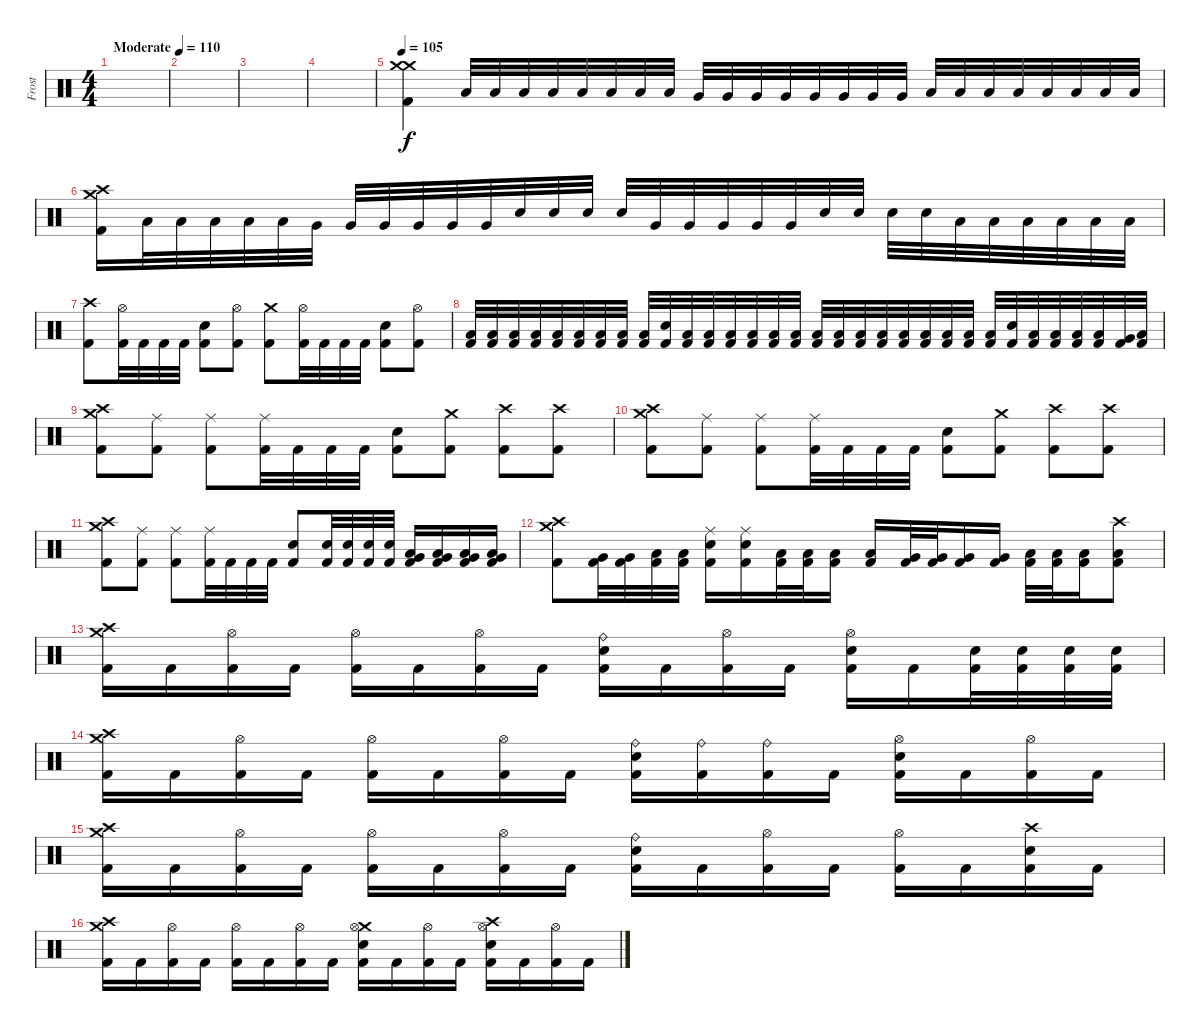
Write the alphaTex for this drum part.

\track ("Frost" "Frost") {instrument percussion}
\staff {score}
\articulation defaults
\ts (4 4)
\tempo (110 "Moderate")
\clef neutral
\ks c
|
|
|
|
\tempo 105
("Crash medium (hit)" "Crash medium (hit)" "Kick (hit) 2").4 "Low Tom (hit)".32 "Low Tom (hit)".32 "Low Tom (hit)".32 "Low Tom (hit)".32 "Low Tom (hit)".32 "Low Tom (hit)".32 "Low Tom (hit)".32 "Low Tom (hit)".32 "Very Low Tom (hit)".32 "Very Low Tom (hit)".32 "Very Low Tom (hit)".32 "Very Low Tom (hit)".32 "Very Low Tom (hit)".32 "Very Low Tom (hit)".32 "Very Low Tom (hit)".32 "Very Low Tom (hit)".32 "Low Floor Tom (hit)".32 "Low Floor Tom (hit)".32 "Low Floor Tom (hit)".32 "Low Floor Tom (hit)".32 "Low Floor Tom (hit)".32 "Low Floor Tom (hit)".32 "Low Floor Tom (hit)".32 "Low Floor Tom (hit)".32 |
("Crash high (hit)" "Crash medium (hit)" "Kick (hit) 2").16 "Low Tom (hit)".32 "Low Tom (hit)".32 "Low Tom (hit)".32 "Low Tom (hit)".32 "Low Tom (hit)".32 "Very Low Tom (hit)".32 "Very Low Tom (hit)".32 "Very Low Tom (hit)".32 "Very Low Tom (hit)".32 "Very Low Tom (hit)".32 "Very Low Tom (hit)".32 "Snare (hit) 2".32 "Snare (hit) 2".32 "Snare (hit) 2".32 "Snare (hit) 2".32 "Very Low Tom (hit)".32 "Very Low Tom (hit)".32 "Very Low Tom (hit)".32 "Very Low Tom (hit)".32 "Very Low Tom (hit)".32 "Snare (hit) 2".32 "Snare (hit) 2".32 "Snare (hit) 2".32 "Snare (hit) 2".32 "Low Floor Tom (hit)".32 "Low Floor Tom (hit)".32 "Low Floor Tom (hit)".32 "Low Floor Tom (hit)".32 "Low Floor Tom (hit)".32 "Low Floor Tom (hit)".32 |
("Crash high (hit)" "Kick (hit) 2").8 ("Hi-Hat (open)" "Kick (hit) 2").32 "Kick (hit) 2".32 "Kick (hit) 2".32 "Kick (hit) 2".32 ("Snare (hit) 2" "Kick (hit) 2").8 ("Hi-Hat (open)" "Kick (hit) 2").8 ("Crash medium (hit)" "Kick (hit) 2").8 ("Hi-Hat (open)" "Kick (hit) 2").32 "Kick (hit) 2".32 "Kick (hit) 2".32 "Kick (hit) 2".32 ("Snare (hit) 2" "Kick (hit) 2").8 ("Hi-Hat (open)" "Kick (hit) 2").8 |
("Low Tom (hit)" "Kick (hit) 2").32 ("Low Floor Tom (hit)" "Kick (hit) 2").32 ("Low Tom (hit)" "Kick (hit) 2").32 ("Low Floor Tom (hit)" "Kick (hit) 2").32 ("Low Tom (hit)" "Kick (hit) 2").32 ("Low Floor Tom (hit)" "Kick (hit) 2").32 ("Low Tom (hit)" "Kick (hit) 2").32 ("Low Floor Tom (hit)" "Kick (hit) 2").32 ("Low Tom (hit)" "Kick (hit) 2").32 ("Snare (hit) 2" "Kick (hit) 2").32 ("Low Tom (hit)" "Kick (hit) 2").32 ("Low Floor Tom (hit)" "Kick (hit) 2").32 ("Low Tom (hit)" "Kick (hit) 2").32 ("Low Floor Tom (hit)" "Kick (hit) 2").32 ("Low Tom (hit)" "Kick (hit) 2").32 ("Low Floor Tom (hit)" "Kick (hit) 2").32 ("Low Tom (hit)" "Kick (hit) 2").32 ("Low Floor Tom (hit)" "Kick (hit) 2").32 ("Low Tom (hit)" "Kick (hit) 2").32 ("Low Tom (hit)" "Kick (hit) 2").32 ("Low Floor Tom (hit)" "Kick (hit) 2").32 ("Low Tom (hit)" "Kick (hit) 2").32 ("Low Floor Tom (hit)" "Kick (hit) 2").32 ("Low Tom (hit)" "Kick (hit) 2").32 ("Low Floor Tom (hit)" "Kick (hit) 2").32 ("Snare (hit) 2" "Kick (hit) 2").32 ("Low Floor Tom (hit)" "Kick (hit) 2").32 ("Low Tom (hit)" "Kick (hit) 2").32 ("Low Floor Tom (hit)" "Kick (hit) 2").32 ("Low Tom (hit)" "Kick (hit) 2").32 ("Very Low Tom (hit)" "Kick (hit) 2").32 ("Low Tom (hit)" "Kick (hit) 2").32 |
("Crash high (hit)" "Crash medium (hit)" "Kick (hit) 2").8 ("Ride (middle)" "Kick (hit) 2").8 ("Ride (middle)" "Kick (hit) 2").8 ("Ride (middle)" "Kick (hit) 2").32 "Kick (hit) 2".32 "Kick (hit) 2".32 "Kick (hit) 2".32 ("Snare (hit) 2" "Kick (hit) 2").8 ("Crash medium (hit)" "Kick (hit) 2").8 ("Crash high (hit)" "Kick (hit) 2").8 ("Crash high (hit)" "Kick (hit) 2").8 |
("Crash high (hit)" "Crash medium (hit)" "Kick (hit) 2").8 ("Ride (middle)" "Kick (hit) 2").8 ("Ride (middle)" "Kick (hit) 2").8 ("Ride (middle)" "Kick (hit) 2").32 "Kick (hit) 2".32 "Kick (hit) 2".32 "Kick (hit) 2".32 ("Snare (hit) 2" "Kick (hit) 2").8 ("Crash medium (hit)" "Kick (hit) 2").8 ("Crash high (hit)" "Kick (hit) 2").8 ("Crash high (hit)" "Kick (hit) 2").8 |
("Crash high (hit)" "Crash medium (hit)" "Kick (hit) 2").8 ("Ride (middle)" "Kick (hit) 2").8 ("Ride (middle)" "Kick (hit) 2").8 ("Ride (middle)" "Kick (hit) 2").32 "Kick (hit) 2".32 "Kick (hit) 2".32 "Kick (hit) 2".32 ("Snare (hit) 2" "Kick (hit) 2").8 ("Snare (hit) 2" "Kick (hit) 2").32 ("Snare (hit) 2" "Kick (hit) 2").32 ("Snare (hit) 2" "Kick (hit) 2").32 ("Snare (hit) 2" "Kick (hit) 2").32 ("Very Low Tom (hit)" "Low Floor Tom (hit)" "Kick (hit) 2").16 ("Very Low Tom (hit)" "Low Floor Tom (hit)" "Kick (hit) 2").16 ("Very Low Tom (hit)" "Low Floor Tom (hit)" "Kick (hit) 2").16 ("Very Low Tom (hit)" "Low Floor Tom (hit)" "Kick (hit) 2").16 |
("Crash high (hit)" "Crash medium (hit)" "Kick (hit) 2").8 ("Very Low Tom (hit)" "Kick (hit) 2").32 ("Very Low Tom (hit)" "Kick (hit) 2").32 ("Low Floor Tom (hit)" "Kick (hit) 2").32 ("Low Floor Tom (hit)" "Kick (hit) 2").32 ("Ride (middle)" "Snare (hit) 2" "Kick (hit) 2").16 ("Ride (middle)" "Snare (hit) 2" "Kick (hit) 2").16 ("Low Tom (hit)" "Kick (hit) 2").32 ("Low Tom (hit)" "Kick (hit) 2").32 ("Low Tom (hit)" "Kick (hit) 2").16 ("Low Tom (hit)" "Kick (hit) 2").16 ("Very Low Tom (hit)" "Kick (hit) 2").32 ("Very Low Tom (hit)" "Kick (hit) 2").32 ("Very Low Tom (hit)" "Kick (hit) 2").16 ("Very Low Tom (hit)" "Kick (hit) 2").16 ("Low Floor Tom (hit)" "Kick (hit) 2").32 ("Low Floor Tom (hit)" "Kick (hit) 2").32 ("Low Floor Tom (hit)" "Kick (hit) 2").16 ("Crash high (hit)" "Low Floor Tom (hit)" "Kick (hit) 2").8 |
("Crash medium (hit)" "Crash high (hit)" "Kick (hit) 2").16 "Kick (hit) 2".16 ("Hi-Hat (open)" "Kick (hit) 2").16 "Kick (hit) 2".16 ("Hi-Hat (open)" "Kick (hit) 2").16 "Kick (hit) 2".16 ("Hi-Hat (open)" "Kick (hit) 2").16 "Kick (hit) 2".16 ("Ride (bell)" "Snare (hit) 2" "Kick (hit) 2").16 "Kick (hit) 2".16 ("Hi-Hat (open)" "Kick (hit) 2").16 "Kick (hit) 2".16 ("Hi-Hat (open)" "Snare (hit) 2" "Kick (hit) 2").16 "Kick (hit) 2".16 ("Snare (hit) 2" "Kick (hit) 2").32 ("Snare (hit) 2" "Kick (hit) 2").32 ("Snare (hit) 2" "Kick (hit) 2").32 ("Snare (hit) 2" "Kick (hit) 2").32 |
("Crash medium (hit)" "Crash high (hit)" "Kick (hit) 2").16 "Kick (hit) 2".16 ("Hi-Hat (open)" "Kick (hit) 2").16 "Kick (hit) 2".16 ("Hi-Hat (open)" "Kick (hit) 2").16 "Kick (hit) 2".16 ("Hi-Hat (open)" "Kick (hit) 2").16 "Kick (hit) 2".16 ("Ride (bell)" "Snare (hit) 2" "Kick (hit) 2").16 ("Ride (bell)" "Kick (hit) 2").16 ("Ride (bell)" "Kick (hit) 2").16 "Kick (hit) 2".16 ("Hi-Hat (open)" "Snare (hit) 2" "Kick (hit) 2").16 "Kick (hit) 2".16 ("Hi-Hat (open)" "Kick (hit) 2").16 "Kick (hit) 2".16 |
("Crash medium (hit)" "Crash high (hit)" "Kick (hit) 2").16 "Kick (hit) 2".16 ("Hi-Hat (open)" "Kick (hit) 2").16 "Kick (hit) 2".16 ("Hi-Hat (open)" "Kick (hit) 2").16 "Kick (hit) 2".16 ("Hi-Hat (open)" "Kick (hit) 2").16 "Kick (hit) 2".16 ("Ride (bell)" "Snare (hit) 2" "Kick (hit) 2").16 "Kick (hit) 2".16 ("Hi-Hat (open)" "Kick (hit) 2").16 "Kick (hit) 2".16 ("Hi-Hat (open)" "Kick (hit) 2").16 "Kick (hit) 2".16 ("Crash high (hit)" "Snare (hit) 2" "Kick (hit) 2").16 "Kick (hit) 2".16 |
("Crash medium (hit)" "Crash high (hit)" "Kick (hit) 2").16 "Kick (hit) 2".16 ("Hi-Hat (open)" "Kick (hit) 2").16 "Kick (hit) 2".16 ("Hi-Hat (open)" "Kick (hit) 2").16 "Kick (hit) 2".16 ("Hi-Hat (open)" "Kick (hit) 2").16 "Kick (hit) 2".16 ("Crash medium (hit)" "Hi-Hat (open)" "Snare (hit) 2" "Kick (hit) 2").16 "Kick (hit) 2".16 ("Hi-Hat (open)" "Kick (hit) 2").16 "Kick (hit) 2".16 ("Crash high (hit)" "Hi-Hat (open)" "Snare (hit) 2" "Kick (hit) 2").16 "Kick (hit) 2".16 ("Hi-Hat (open)" "Kick (hit) 2").16 "Kick (hit) 2".16
